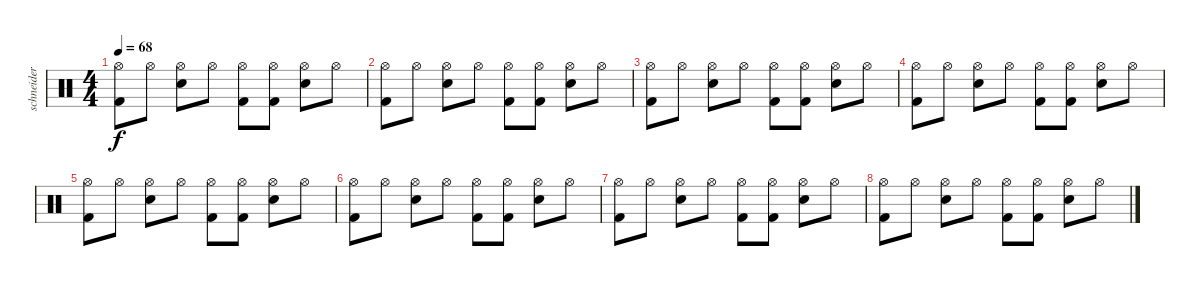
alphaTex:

\track ("schneider" "schneider") {instrument percussion}
\staff {score}
\articulation defaults
\ts (4 4)
\tempo 68
\clef neutral
\ks c
("Hi-Hat (open)" "Kick (hit) 2").8{dy f} "Hi-Hat (open)".8 ("Hi-Hat (open)" "Electric Snare (hit)").8 "Hi-Hat (open)".8 ("Hi-Hat (open)" "Kick (hit) 2").8 ("Hi-Hat (open)" "Kick (hit) 2").8 ("Hi-Hat (open)" "Electric Snare (hit)").8 "Hi-Hat (open)".8 |
("Hi-Hat (open)" "Kick (hit) 2").8 "Hi-Hat (open)".8 ("Hi-Hat (open)" "Electric Snare (hit)").8 "Hi-Hat (open)".8 ("Hi-Hat (open)" "Kick (hit) 2").8 ("Hi-Hat (open)" "Kick (hit) 2").8 ("Hi-Hat (open)" "Electric Snare (hit)").8 "Hi-Hat (open)".8 |
("Hi-Hat (open)" "Kick (hit) 2").8 "Hi-Hat (open)".8 ("Hi-Hat (open)" "Electric Snare (hit)").8 "Hi-Hat (open)".8 ("Hi-Hat (open)" "Kick (hit) 2").8 ("Hi-Hat (open)" "Kick (hit) 2").8 ("Hi-Hat (open)" "Electric Snare (hit)").8 "Hi-Hat (open)".8 |
("Hi-Hat (open)" "Kick (hit) 2").8 "Hi-Hat (open)".8 ("Hi-Hat (open)" "Electric Snare (hit)").8 "Hi-Hat (open)".8 ("Hi-Hat (open)" "Kick (hit) 2").8 ("Hi-Hat (open)" "Kick (hit) 2").8 ("Hi-Hat (open)" "Electric Snare (hit)").8 "Hi-Hat (open)".8 |
("Hi-Hat (open)" "Kick (hit) 2").8 "Hi-Hat (open)".8 ("Hi-Hat (open)" "Electric Snare (hit)").8 "Hi-Hat (open)".8 ("Hi-Hat (open)" "Kick (hit) 2").8 ("Hi-Hat (open)" "Kick (hit) 2").8 ("Hi-Hat (open)" "Electric Snare (hit)").8 "Hi-Hat (open)".8 |
("Hi-Hat (open)" "Kick (hit) 2").8 "Hi-Hat (open)".8 ("Hi-Hat (open)" "Electric Snare (hit)").8 "Hi-Hat (open)".8 ("Hi-Hat (open)" "Kick (hit) 2").8 ("Hi-Hat (open)" "Kick (hit) 2").8 ("Hi-Hat (open)" "Electric Snare (hit)").8 "Hi-Hat (open)".8 |
("Hi-Hat (open)" "Kick (hit) 2").8 "Hi-Hat (open)".8 ("Hi-Hat (open)" "Electric Snare (hit)").8 "Hi-Hat (open)".8 ("Hi-Hat (open)" "Kick (hit) 2").8 ("Hi-Hat (open)" "Kick (hit) 2").8 ("Hi-Hat (open)" "Electric Snare (hit)").8 "Hi-Hat (open)".8 |
("Hi-Hat (open)" "Kick (hit) 2").8 "Hi-Hat (open)".8 ("Hi-Hat (open)" "Electric Snare (hit)").8 "Hi-Hat (open)".8 ("Hi-Hat (open)" "Kick (hit) 2").8 ("Hi-Hat (open)" "Kick (hit) 2").8 ("Hi-Hat (open)" "Electric Snare (hit)").8 "Hi-Hat (open)".8
